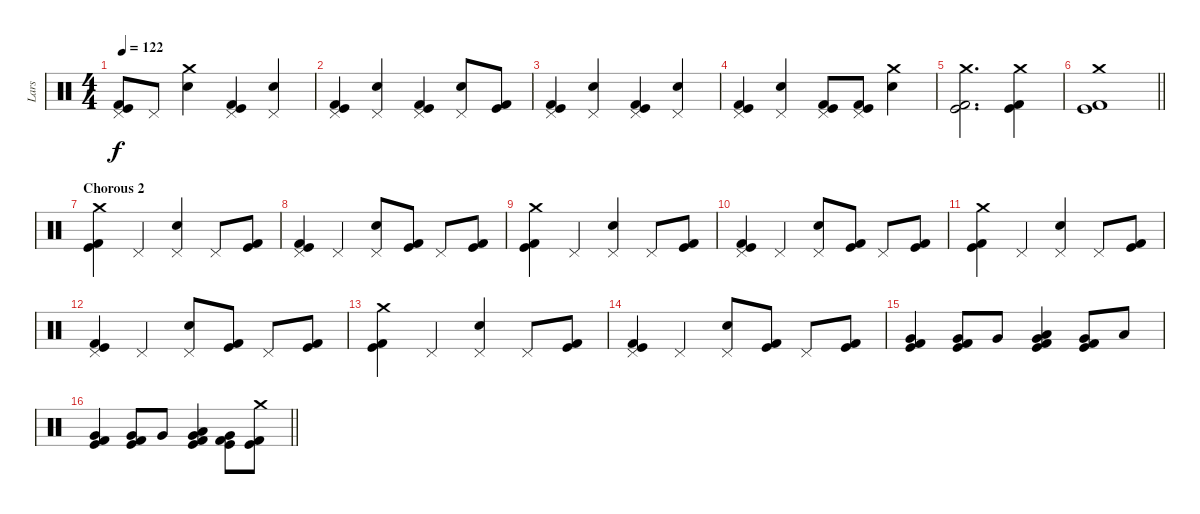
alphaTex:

\track ("Lars" "Lars") {instrument percussion}
\staff {score}
\articulation defaults
\ts (4 4)
\tempo 122
\clef neutral
\ks c
("Pedal Hi-Hat (hit)" "Kick (hit)" "Kick (hit) 2").8{dy f} "Pedal Hi-Hat (hit)".8 ("Crash medium (hit)" "Electric Snare (hit)").4 ("Pedal Hi-Hat (hit)" "Kick (hit)" "Kick (hit) 2").4 ("Pedal Hi-Hat (hit)" "Electric Snare (hit)").4 |
("Pedal Hi-Hat (hit)" "Kick (hit)" "Kick (hit) 2").4 ("Pedal Hi-Hat (hit)" "Electric Snare (hit)").4 ("Pedal Hi-Hat (hit)" "Kick (hit)" "Kick (hit) 2").4 ("Pedal Hi-Hat (hit)" "Electric Snare (hit)").8 ("Kick (hit)" "Kick (hit) 2").8 |
("Pedal Hi-Hat (hit)" "Kick (hit)" "Kick (hit) 2").4 ("Pedal Hi-Hat (hit)" "Electric Snare (hit)").4 ("Pedal Hi-Hat (hit)" "Kick (hit)" "Kick (hit) 2").4 ("Pedal Hi-Hat (hit)" "Electric Snare (hit)").4 |
("Pedal Hi-Hat (hit)" "Kick (hit)" "Kick (hit) 2").4 ("Pedal Hi-Hat (hit)" "Electric Snare (hit)").4 ("Pedal Hi-Hat (hit)" "Kick (hit)" "Kick (hit) 2").8 ("Pedal Hi-Hat (hit)" "Kick (hit)" "Kick (hit) 2").8 ("Crash medium (hit)" "Electric Snare (hit)").4 |
("Crash medium (hit)" "Kick (hit)" "Kick (hit) 2").2{d} ("Crash medium (hit)" "Kick (hit)" "Kick (hit) 2").4 |
\barLineRight lightlight
("Crash medium (hit)" "Kick (hit)" "Kick (hit) 2").1 |
\section ("" "Chorous 2")
("Crash medium (hit)" "Kick (hit)" "Kick (hit) 2").4 "Pedal Hi-Hat (hit)".4 ("Pedal Hi-Hat (hit)" "Electric Snare (hit)").4 "Pedal Hi-Hat (hit)".8 ("Kick (hit)" "Kick (hit) 2").8 |
("Pedal Hi-Hat (hit)" "Kick (hit)" "Kick (hit) 2").4 "Pedal Hi-Hat (hit)".4 ("Pedal Hi-Hat (hit)" "Electric Snare (hit)").8 ("Kick (hit)" "Kick (hit) 2").8 "Pedal Hi-Hat (hit)".8 ("Kick (hit)" "Kick (hit) 2").8 |
("Crash medium (hit)" "Kick (hit)" "Kick (hit) 2").4 "Pedal Hi-Hat (hit)".4 ("Pedal Hi-Hat (hit)" "Electric Snare (hit)").4 "Pedal Hi-Hat (hit)".8 ("Kick (hit)" "Kick (hit) 2").8 |
("Pedal Hi-Hat (hit)" "Kick (hit)" "Kick (hit) 2").4 "Pedal Hi-Hat (hit)".4 ("Pedal Hi-Hat (hit)" "Electric Snare (hit)").8 ("Kick (hit)" "Kick (hit) 2").8 "Pedal Hi-Hat (hit)".8 ("Kick (hit)" "Kick (hit) 2").8 |
("Crash medium (hit)" "Kick (hit)" "Kick (hit) 2").4 "Pedal Hi-Hat (hit)".4 ("Pedal Hi-Hat (hit)" "Electric Snare (hit)").4 "Pedal Hi-Hat (hit)".8 ("Kick (hit)" "Kick (hit) 2").8 |
("Pedal Hi-Hat (hit)" "Kick (hit)" "Kick (hit) 2").4 "Pedal Hi-Hat (hit)".4 ("Pedal Hi-Hat (hit)" "Electric Snare (hit)").8 ("Kick (hit)" "Kick (hit) 2").8 "Pedal Hi-Hat (hit)".8 ("Kick (hit)" "Kick (hit) 2").8 |
("Crash medium (hit)" "Kick (hit)" "Kick (hit) 2").4 "Pedal Hi-Hat (hit)".4 ("Pedal Hi-Hat (hit)" "Electric Snare (hit)").4 "Pedal Hi-Hat (hit)".8 ("Kick (hit)" "Kick (hit) 2").8 |
("Pedal Hi-Hat (hit)" "Kick (hit)" "Kick (hit) 2").4 "Pedal Hi-Hat (hit)".4 ("Pedal Hi-Hat (hit)" "Electric Snare (hit)").8 ("Kick (hit)" "Kick (hit) 2").8 "Pedal Hi-Hat (hit)".8 ("Kick (hit)" "Kick (hit) 2").8 |
("Very Low Tom (hit)" "Kick (hit)" "Kick (hit) 2").4 ("Very Low Tom (hit)" "Kick (hit)" "Kick (hit) 2").8 "Very Low Tom (hit)".8 ("Very Low Tom (hit)" "Kick (hit)" "Kick (hit) 2" "Low Tom (hit)").4 ("Very Low Tom (hit)" "Kick (hit)" "Kick (hit) 2").8 "Low Tom (hit)".8 |
\barLineRight lightlight
("Very Low Tom (hit)" "Kick (hit)" "Kick (hit) 2").4 ("Very Low Tom (hit)" "Kick (hit)" "Kick (hit) 2").8 "Very Low Tom (hit)".8 ("Very Low Tom (hit)" "Kick (hit)" "Kick (hit) 2" "Low Tom (hit)").4 ("Very Low Tom (hit)" "Kick (hit)" "Kick (hit) 2").8 ("Crash medium (hit)" "Kick (hit)" "Kick (hit) 2").8
